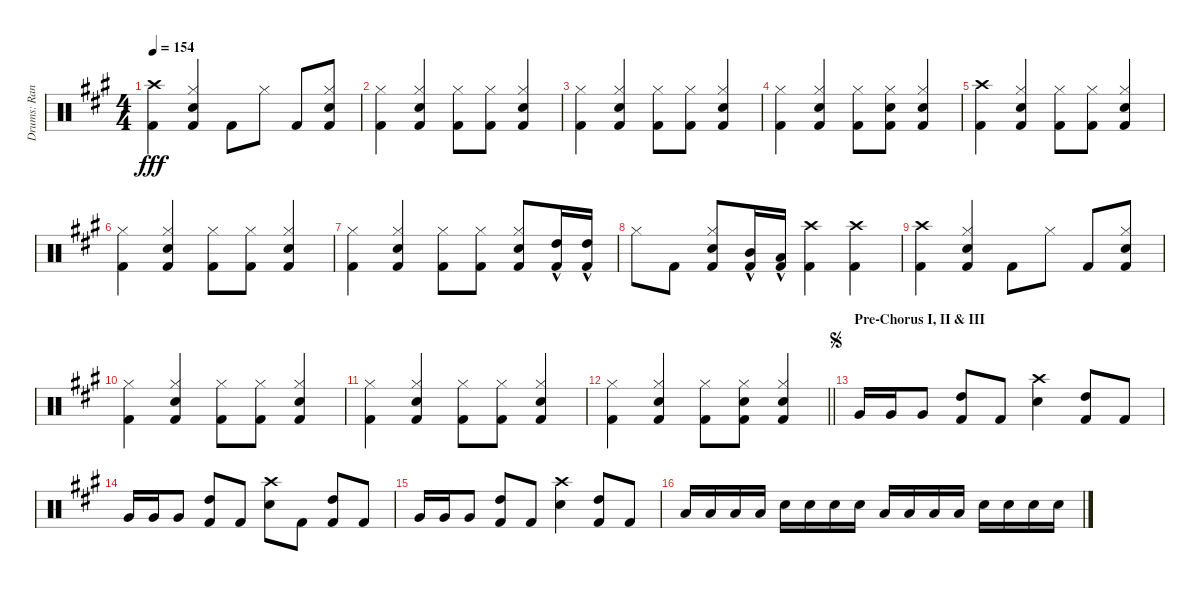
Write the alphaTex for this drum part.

\track ("Drums: Randy" "Drums: Ran") {instrument percussion}
\staff {score}
\articulation defaults
\ts (4 4)
\tempo 154
\clef neutral
\ks a
("Crash high (hit)" "Kick (hit) 2").4{dy fff} ("Hi-Hat (closed)" "Snare (hit) 2" "Kick (hit) 2").4 "Kick (hit) 2".8 "Hi-Hat (closed)".8 "Kick (hit) 2".8 ("Hi-Hat (closed)" "Snare (hit) 2" "Kick (hit) 2").8 |
("Hi-Hat (closed)" "Kick (hit) 2").4 ("Hi-Hat (closed)" "Snare (hit) 2" "Kick (hit) 2").4 ("Hi-Hat (closed)" "Kick (hit) 2").8 ("Hi-Hat (closed)" "Kick (hit) 2").8 ("Hi-Hat (closed)" "Snare (hit) 2" "Kick (hit) 2").4 |
("Hi-Hat (closed)" "Kick (hit) 2").4 ("Hi-Hat (closed)" "Snare (hit) 2" "Kick (hit) 2").4 ("Hi-Hat (closed)" "Kick (hit) 2").8 ("Hi-Hat (closed)" "Kick (hit) 2").8 ("Hi-Hat (closed)" "Snare (hit) 2" "Kick (hit) 2").4 |
("Hi-Hat (closed)" "Kick (hit) 2").4 ("Hi-Hat (closed)" "Snare (hit) 2" "Kick (hit) 2").4 ("Hi-Hat (closed)" "Kick (hit) 2").8 ("Hi-Hat (closed)" "Snare (hit) 2" "Kick (hit) 2").8 ("Hi-Hat (closed)" "Snare (hit) 2" "Kick (hit) 2").4 |
("Crash high (hit)" "Kick (hit) 2").4 ("Hi-Hat (closed)" "Snare (hit) 2" "Kick (hit) 2").4 ("Hi-Hat (closed)" "Kick (hit) 2").8 ("Hi-Hat (closed)" "Kick (hit) 2").8 ("Hi-Hat (closed)" "Snare (hit) 2" "Kick (hit) 2").4 |
("Hi-Hat (closed)" "Kick (hit) 2").4 ("Hi-Hat (closed)" "Snare (hit) 2" "Kick (hit) 2").4 ("Hi-Hat (closed)" "Kick (hit) 2").8 ("Hi-Hat (closed)" "Kick (hit) 2").8 ("Hi-Hat (closed)" "Snare (hit) 2" "Kick (hit) 2").4 |
("Hi-Hat (closed)" "Kick (hit) 2").4 ("Hi-Hat (closed)" "Snare (hit) 2" "Kick (hit) 2").4 ("Hi-Hat (closed)" "Kick (hit) 2").8 ("Hi-Hat (closed)" "Kick (hit) 2").8 ("Hi-Hat (closed)" "Snare (hit) 2" "Kick (hit) 2").8 ("High Tom (hit)"{hac} "Kick (hit) 2"{hac}).16 ("High Tom (hit)"{hac} "Kick (hit) 2"{hac}).16 |
"Hi-Hat (closed)".8 "Kick (hit) 2".8 ("Hi-Hat (closed)" "Snare (hit) 2" "Kick (hit) 2").8 ("Mid Tom (hit)"{hac} "Kick (hit) 2"{hac}).16 ("Low Tom (hit)"{hac} "Kick (hit) 2"{hac}).16 ("Crash high (hit)" "Kick (hit) 2").4 ("Crash high (hit)" "Kick (hit) 2").4 |
("Crash high (hit)" "Kick (hit) 2").4 ("Hi-Hat (closed)" "Snare (hit) 2" "Kick (hit) 2").4 "Kick (hit) 2".8 "Hi-Hat (closed)".8 "Kick (hit) 2".8 ("Hi-Hat (closed)" "Snare (hit) 2" "Kick (hit) 2").8 |
("Hi-Hat (closed)" "Kick (hit) 2").4 ("Hi-Hat (closed)" "Snare (hit) 2" "Kick (hit) 2").4 ("Hi-Hat (closed)" "Kick (hit) 2").8 ("Hi-Hat (closed)" "Kick (hit) 2").8 ("Hi-Hat (closed)" "Snare (hit) 2" "Kick (hit) 2").4 |
("Hi-Hat (closed)" "Kick (hit) 2").4 ("Hi-Hat (closed)" "Snare (hit) 2" "Kick (hit) 2").4 ("Hi-Hat (closed)" "Kick (hit) 2").8 ("Hi-Hat (closed)" "Kick (hit) 2").8 ("Hi-Hat (closed)" "Snare (hit) 2" "Kick (hit) 2").4 |
\barLineRight lightlight
("Hi-Hat (closed)" "Kick (hit) 2").4 ("Hi-Hat (closed)" "Snare (hit) 2" "Kick (hit) 2").4 ("Hi-Hat (closed)" "Kick (hit) 2").8 ("Hi-Hat (closed)" "Snare (hit) 2" "Kick (hit) 2").8 ("Hi-Hat (closed)" "Snare (hit) 2" "Kick (hit) 2").4 |
\section ("" "Pre-Chorus I, II & III")
\jump segno "Very Low Tom (hit)".16 "Very Low Tom (hit)".16 "Very Low Tom (hit)".8
("High Tom (hit)" "Kick (hit) 2").8 "Kick (hit) 2".8 ("Crash high (hit)" "Snare (hit) 2").4 ("High Tom (hit)" "Kick (hit) 2").8 "Kick (hit) 2".8 |
"Very Low Tom (hit)".16 "Very Low Tom (hit)".16 "Very Low Tom (hit)".8 ("High Tom (hit)" "Kick (hit) 2").8 "Kick (hit) 2".8 ("Crash high (hit)" "Snare (hit) 2").8 "Kick (hit) 2".8 ("High Tom (hit)" "Kick (hit) 2").8 "Kick (hit) 2".8 |
"Very Low Tom (hit)".16 "Very Low Tom (hit)".16 "Very Low Tom (hit)".8 ("High Tom (hit)" "Kick (hit) 2").8 "Kick (hit) 2".8 ("Crash high (hit)" "Snare (hit) 2").4 ("High Tom (hit)" "Kick (hit) 2").8 "Kick (hit) 2".8 |
"Low Tom (hit)".16 "Low Tom (hit)".16 "Low Tom (hit)".16 "Low Tom (hit)".16 "Snare (hit) 2".16 "Snare (hit) 2".16 "Snare (hit) 2".16 "Snare (hit) 2".16 "Low Tom (hit)".16 "Low Tom (hit)".16 "Low Tom (hit)".16 "Low Tom (hit)".16 "Snare (hit) 2".16 "Snare (hit) 2".16 "Snare (hit) 2".16 "Snare (hit) 2".16
